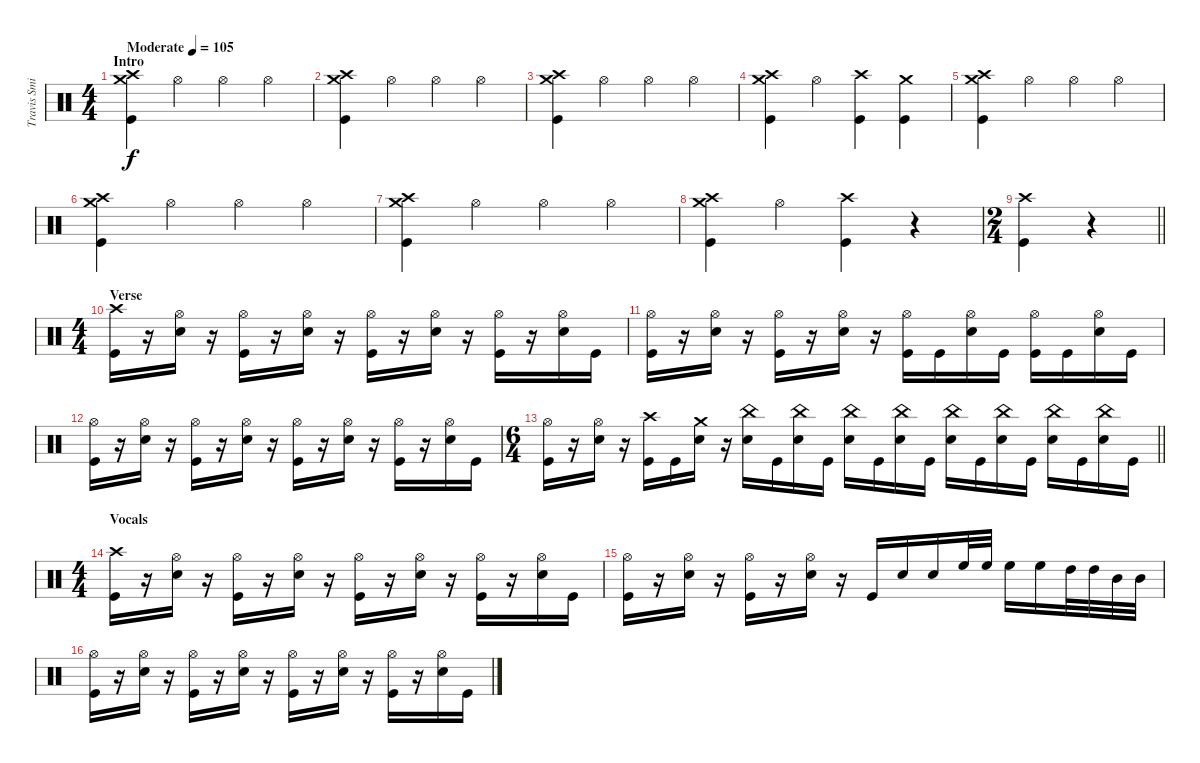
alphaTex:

\track ("Travis Smith" "Travis Smi") {instrument percussion}
\staff {score}
\articulation defaults
\ts (4 4)
\section ("" "Intro")
\tempo (105 "Moderate")
\clef neutral
\ks c
("Crash medium (hit)" "Crash high (hit)" "Kick (hit)").4{dy f} "Hi-Hat (open)".4 "Hi-Hat (open)".4 "Hi-Hat (open)".4 |
("Crash medium (hit)" "Crash high (hit)" "Kick (hit)").4 "Hi-Hat (open)".4 "Hi-Hat (open)".4 "Hi-Hat (open)".4 |
("Crash medium (hit)" "Crash high (hit)" "Kick (hit)").4 "Hi-Hat (open)".4 "Hi-Hat (open)".4 "Hi-Hat (open)".4 |
("Crash medium (hit)" "Crash high (hit)" "Kick (hit)").4 "Hi-Hat (open)".4 ("Crash high (hit)" "Kick (hit)").4 ("Crash medium (hit)" "Kick (hit)").4 |
("Crash medium (hit)" "Crash high (hit)" "Kick (hit)").4 "Hi-Hat (open)".4 "Hi-Hat (open)".4 "Hi-Hat (open)".4 |
("Crash medium (hit)" "Crash high (hit)" "Kick (hit)").4 "Hi-Hat (open)".4 "Hi-Hat (open)".4 "Hi-Hat (open)".4 |
("Crash medium (hit)" "Crash high (hit)" "Kick (hit)").4 "Hi-Hat (open)".4 "Hi-Hat (open)".4 "Hi-Hat (open)".4 |
("Crash medium (hit)" "Crash high (hit)" "Kick (hit)").4 "Hi-Hat (open)".4 ("Crash high (hit)" "Kick (hit)").4 r.4 |
\ts (2 4)
\barLineRight lightlight
("Crash high (hit)" "Kick (hit)").4 r.4 |
\ts (4 4)
\section ("" "Verse")
("Crash high (hit)" "Kick (hit)").16 r.16 ("Hi-Hat (open)" "Electric Snare (hit)").16 r.16 ("Hi-Hat (open)" "Kick (hit)").16 r.16 ("Hi-Hat (open)" "Electric Snare (hit)").16 r.16 ("Hi-Hat (open)" "Kick (hit)").16 r.16 ("Hi-Hat (open)" "Electric Snare (hit)").16 r.16 ("Hi-Hat (open)" "Kick (hit)").16 r.16 ("Hi-Hat (open)" "Electric Snare (hit)").16 "Kick (hit)".16 |
("Hi-Hat (open)" "Kick (hit)").16 r.16 ("Hi-Hat (open)" "Electric Snare (hit)").16 r.16 ("Hi-Hat (open)" "Kick (hit)").16 r.16 ("Hi-Hat (open)" "Electric Snare (hit)").16 r.16 ("Hi-Hat (open)" "Kick (hit)").16 "Kick (hit)".16 ("Hi-Hat (open)" "Electric Snare (hit)").16 "Kick (hit)".16 ("Hi-Hat (open)" "Kick (hit)").16 "Kick (hit)".16 ("Hi-Hat (open)" "Electric Snare (hit)").16 "Kick (hit)".16 |
("Hi-Hat (open)" "Kick (hit)").16 r.16 ("Hi-Hat (open)" "Electric Snare (hit)").16 r.16 ("Hi-Hat (open)" "Kick (hit)").16 r.16 ("Hi-Hat (open)" "Electric Snare (hit)").16 r.16 ("Hi-Hat (open)" "Kick (hit)").16 r.16 ("Hi-Hat (open)" "Electric Snare (hit)").16 r.16 ("Hi-Hat (open)" "Kick (hit)").16 r.16 ("Hi-Hat (open)" "Electric Snare (hit)").16 "Kick (hit)".16 |
\ts (6 4)
\barLineRight lightlight
("Hi-Hat (open)" "Kick (hit)").16 r.16 ("Hi-Hat (open)" "Electric Snare (hit)").16 r.16 ("Crash high (hit)" "Kick (hit)").16 "Kick (hit)".16 ("Crash medium (hit)" "Electric Snare (hit)").16 r.16 ("China (hit)" "Electric Snare (hit)").16 "Kick (hit)".16 ("China (hit)" "Electric Snare (hit)").16 "Kick (hit)".16 ("China (hit)" "Electric Snare (hit)").16 "Kick (hit)".16 ("China (hit)" "Electric Snare (hit)").16 "Kick (hit)".16 ("China (hit)" "Electric Snare (hit)").16 "Kick (hit)".16 ("China (hit)" "Electric Snare (hit)").16 "Kick (hit)".16 ("China (hit)" "Electric Snare (hit)").16 "Kick (hit)".16 ("China (hit)" "Electric Snare (hit)").16 "Kick (hit)".16 |
\ts (4 4)
\section ("" "Vocals")
("Crash high (hit)" "Kick (hit)").16 r.16 ("Hi-Hat (open)" "Electric Snare (hit)").16 r.16 ("Hi-Hat (open)" "Kick (hit)").16 r.16 ("Hi-Hat (open)" "Electric Snare (hit)").16 r.16 ("Hi-Hat (open)" "Kick (hit)").16 r.16 ("Hi-Hat (open)" "Electric Snare (hit)").16 r.16 ("Hi-Hat (open)" "Kick (hit)").16 r.16 ("Hi-Hat (open)" "Electric Snare (hit)").16 "Kick (hit)".16 |
("Hi-Hat (open)" "Kick (hit)").16 r.16 ("Hi-Hat (open)" "Electric Snare (hit)").16 r.16 ("Hi-Hat (open)" "Kick (hit)").16 r.16 ("Hi-Hat (open)" "Electric Snare (hit)").16 r.16 "Kick (hit)".16 "Electric Snare (hit)".16 "Electric Snare (hit)".16 "High Floor Tom (hit)".32 "High Floor Tom (hit)".32 "High Floor Tom (hit)".16 "High Floor Tom (hit)".16 "High Tom (hit)".32 "High Tom (hit)".32 "Mid Tom (hit)".32 "Mid Tom (hit)".32 |
("Hi-Hat (open)" "Kick (hit)").16 r.16 ("Hi-Hat (open)" "Electric Snare (hit)").16 r.16 ("Hi-Hat (open)" "Kick (hit)").16 r.16 ("Hi-Hat (open)" "Electric Snare (hit)").16 r.16 ("Hi-Hat (open)" "Kick (hit)").16 r.16 ("Hi-Hat (open)" "Electric Snare (hit)").16 r.16 ("Hi-Hat (open)" "Kick (hit)").16 r.16 ("Hi-Hat (open)" "Electric Snare (hit)").16 "Kick (hit)".16
